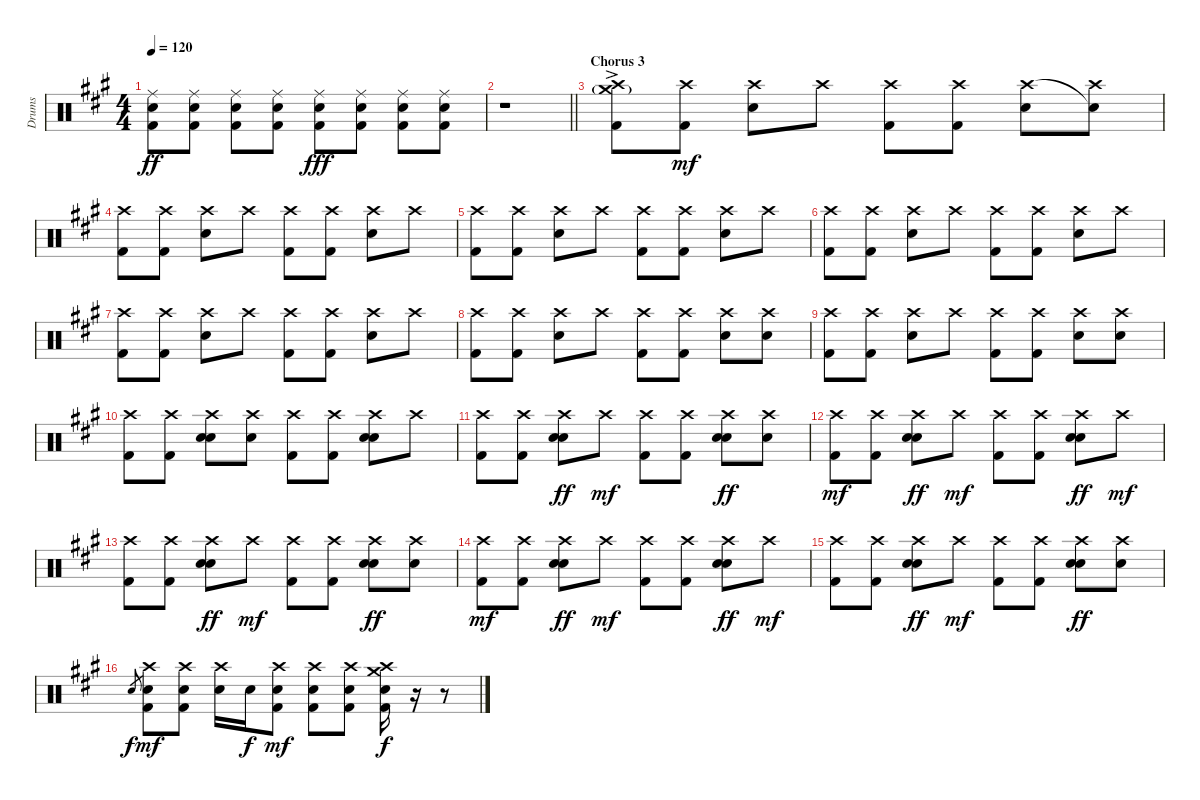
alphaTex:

\track ("Drums" "Drums") {instrument percussion}
\staff {score}
\articulation defaults
\ts (4 4)
\tempo 120
\clef neutral
\ks a
("Ride (middle)" "Electric Snare (hit)" "Kick (hit) 2").8{dy ff} ("Ride (middle)" "Electric Snare (hit)" "Kick (hit) 2").8 ("Ride (middle)" "Electric Snare (hit)" "Kick (hit) 2").8 ("Ride (middle)" "Electric Snare (hit)" "Kick (hit) 2").8 ("Ride (middle)" "Electric Snare (hit)" "Kick (hit) 2").8{dy fff} ("Ride (middle)" "Electric Snare (hit)" "Kick (hit) 2").8 ("Ride (middle)" "Electric Snare (hit)" "Kick (hit) 2").8 ("Ride (middle)" "Electric Snare (hit)" "Kick (hit) 2").8 |
\barLineRight lightlight
r.1 |
\section ("" "Chorus 3")
("Crash medium (hit)"{g} "Crash high (hit)"{ac} "Kick (hit) 2").8 ("Crash high (hit)" "Kick (hit) 2").8{dy mf} ("Crash high (hit)" "Electric Snare (hit)").8 "Crash high (hit)".8 ("Crash high (hit)" "Kick (hit) 2").8 ("Crash high (hit)" "Kick (hit) 2").8 ("Crash high (hit)" "Electric Snare (hit)").8 ("Snare (hit)"{t} "Crash high (hit)").8 |
("Crash high (hit)" "Kick (hit) 2").8 ("Crash high (hit)" "Kick (hit) 2").8 ("Crash high (hit)" "Electric Snare (hit)").8 "Crash high (hit)".8 ("Crash high (hit)" "Kick (hit) 2").8 ("Crash high (hit)" "Kick (hit) 2").8 ("Crash high (hit)" "Electric Snare (hit)").8 "Crash high (hit)".8 |
("Crash high (hit)" "Kick (hit) 2").8 ("Crash high (hit)" "Kick (hit) 2").8 ("Crash high (hit)" "Electric Snare (hit)").8 "Crash high (hit)".8 ("Crash high (hit)" "Kick (hit) 2").8 ("Crash high (hit)" "Kick (hit) 2").8 ("Crash high (hit)" "Electric Snare (hit)").8 "Crash high (hit)".8 |
("Crash high (hit)" "Kick (hit) 2").8 ("Crash high (hit)" "Kick (hit) 2").8 ("Crash high (hit)" "Electric Snare (hit)").8 "Crash high (hit)".8 ("Crash high (hit)" "Kick (hit) 2").8 ("Crash high (hit)" "Kick (hit) 2").8 ("Crash high (hit)" "Electric Snare (hit)").8 "Crash high (hit)".8 |
("Crash high (hit)" "Kick (hit) 2").8 ("Crash high (hit)" "Kick (hit) 2").8 ("Crash high (hit)" "Electric Snare (hit)").8 "Crash high (hit)".8 ("Crash high (hit)" "Kick (hit) 2").8 ("Crash high (hit)" "Kick (hit) 2").8 ("Crash high (hit)" "Electric Snare (hit)").8 "Crash high (hit)".8 |
("Crash high (hit)" "Kick (hit) 2").8 ("Crash high (hit)" "Kick (hit) 2").8 ("Crash high (hit)" "Electric Snare (hit)").8 "Crash high (hit)".8 ("Crash high (hit)" "Kick (hit) 2").8 ("Crash high (hit)" "Kick (hit) 2").8 ("Crash high (hit)" "Electric Snare (hit)").8 ("Crash high (hit)" "Electric Snare (hit)").8 |
("Crash high (hit)" "Kick (hit) 2").8 ("Crash high (hit)" "Kick (hit) 2").8 ("Crash high (hit)" "Electric Snare (hit)").8 "Crash high (hit)".8 ("Crash high (hit)" "Kick (hit) 2").8 ("Crash high (hit)" "Kick (hit) 2").8 ("Crash high (hit)" "Electric Snare (hit)").8 ("Crash high (hit)" "Electric Snare (hit)").8 |
("Crash high (hit)" "Kick (hit) 2").8 ("Crash high (hit)" "Kick (hit) 2").8 ("Crash high (hit)" "Hand Clap (hit)" "Electric Snare (hit)").8 ("Crash high (hit)" "Hand Clap (hit)").8 ("Crash high (hit)" "Kick (hit) 2").8 ("Crash high (hit)" "Kick (hit) 2").8 ("Crash high (hit)" "Hand Clap (hit)" "Electric Snare (hit)").8 "Crash high (hit)".8 |
("Crash high (hit)" "Kick (hit) 2").8 ("Crash high (hit)" "Kick (hit) 2").8 ("Crash high (hit)" "Hand Clap (hit)" "Electric Snare (hit)").8{dy ff} "Crash high (hit)".8{dy mf} ("Crash high (hit)" "Kick (hit) 2").8 ("Crash high (hit)" "Kick (hit) 2").8 ("Crash high (hit)" "Hand Clap (hit)" "Electric Snare (hit)").8{dy ff} ("Crash high (hit)" "Hand Clap (hit)").8 |
("Crash high (hit)" "Kick (hit) 2").8{dy mf} ("Crash high (hit)" "Kick (hit) 2").8 ("Crash high (hit)" "Hand Clap (hit)" "Electric Snare (hit)").8{dy ff} "Crash high (hit)".8{dy mf} ("Crash high (hit)" "Kick (hit) 2").8 ("Crash high (hit)" "Kick (hit) 2").8 ("Crash high (hit)" "Hand Clap (hit)" "Electric Snare (hit)").8{dy ff} "Crash high (hit)".8{dy mf} |
("Crash high (hit)" "Kick (hit) 2").8 ("Crash high (hit)" "Kick (hit) 2").8 ("Crash high (hit)" "Hand Clap (hit)" "Electric Snare (hit)").8{dy ff} "Crash high (hit)".8{dy mf} ("Crash high (hit)" "Kick (hit) 2").8 ("Crash high (hit)" "Kick (hit) 2").8 ("Crash high (hit)" "Hand Clap (hit)" "Electric Snare (hit)").8{dy ff} ("Crash high (hit)" "Hand Clap (hit)").8 |
("Crash high (hit)" "Kick (hit) 2").8{dy mf} ("Crash high (hit)" "Kick (hit) 2").8 ("Crash high (hit)" "Hand Clap (hit)" "Electric Snare (hit)").8{dy ff} "Crash high (hit)".8{dy mf} ("Crash high (hit)" "Kick (hit) 2").8 ("Crash high (hit)" "Kick (hit) 2").8 ("Crash high (hit)" "Hand Clap (hit)" "Electric Snare (hit)").8{dy ff} "Crash high (hit)".8{dy mf} |
("Crash high (hit)" "Kick (hit) 2").8 ("Crash high (hit)" "Kick (hit) 2").8 ("Crash high (hit)" "Hand Clap (hit)" "Electric Snare (hit)").8{dy ff} "Crash high (hit)".8{dy mf} ("Crash high (hit)" "Kick (hit) 2").8 ("Crash high (hit)" "Kick (hit) 2").8 ("Crash high (hit)" "Hand Clap (hit)" "Electric Snare (hit)").8{dy ff} ("Crash high (hit)" "Hand Clap (hit)").8 |
"Electric Snare (hit)".8{gr dy f} ("Crash high (hit)" "Electric Snare (hit)" "Kick (hit) 2").8{dy mf} ("Crash high (hit)" "Electric Snare (hit)" "Kick (hit) 2").8 ("Crash high (hit)" "Electric Snare (hit)").16 "Electric Snare (hit)".16{dy f} ("Crash high (hit)" "Electric Snare (hit)" "Kick (hit) 2").8{dy mf} ("Crash high (hit)" "Electric Snare (hit)" "Kick (hit) 2").8 ("Crash high (hit)" "Electric Snare (hit)" "Kick (hit) 2").8 ("Crash medium (hit)" "Crash high (hit)" "Electric Snare (hit)" "Kick (hit) 2").16{dy f} r.16 r.8
